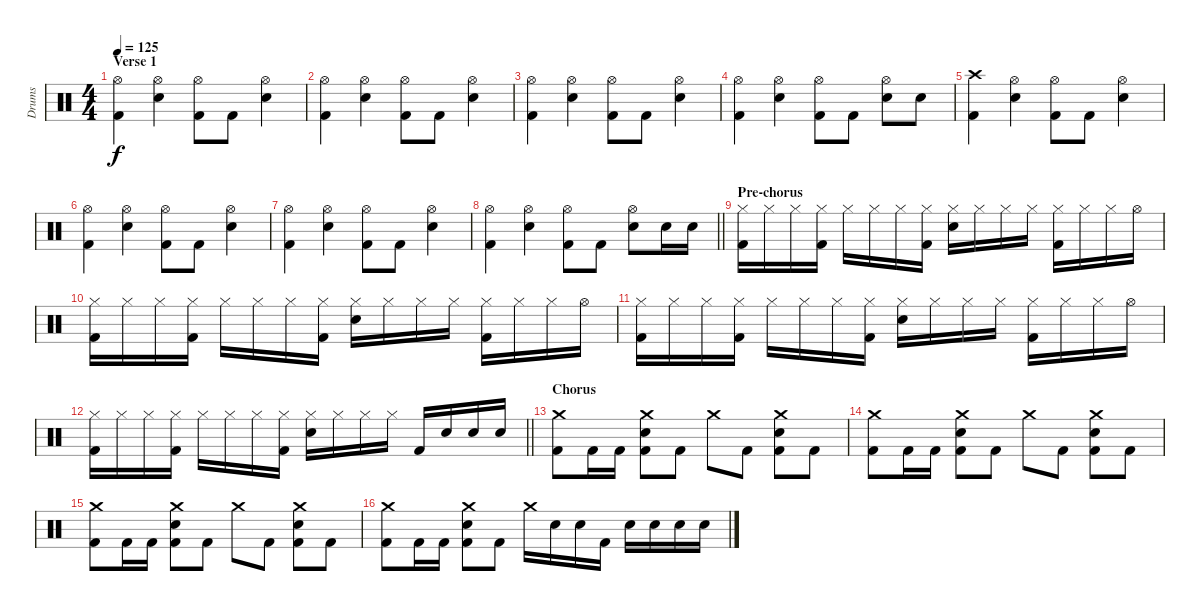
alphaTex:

\track ("Drums" "Drums") {instrument percussion}
\staff {score}
\articulation defaults
\ts (4 4)
\section ("" "Verse 1")
\tempo 125
\clef neutral
\ks c
("Hi-Hat (open)" "Kick (hit) 2").4{dy f} ("Hi-Hat (open)" "Electric Snare (hit)").4 ("Hi-Hat (open)" "Kick (hit) 2").8 "Kick (hit) 2".8 ("Hi-Hat (open)" "Electric Snare (hit)").4 |
("Hi-Hat (open)" "Kick (hit) 2").4 ("Hi-Hat (open)" "Electric Snare (hit)").4 ("Hi-Hat (open)" "Kick (hit) 2").8 "Kick (hit) 2".8 ("Hi-Hat (open)" "Electric Snare (hit)").4 |
("Hi-Hat (open)" "Kick (hit) 2").4 ("Hi-Hat (open)" "Electric Snare (hit)").4 ("Hi-Hat (open)" "Kick (hit) 2").8 "Kick (hit) 2".8 ("Hi-Hat (open)" "Electric Snare (hit)").4 |
("Hi-Hat (open)" "Kick (hit) 2").4 ("Hi-Hat (open)" "Electric Snare (hit)").4 ("Hi-Hat (open)" "Kick (hit) 2").8 "Kick (hit) 2".8 ("Hi-Hat (open)" "Electric Snare (hit)").8 "Electric Snare (hit)".8 |
("Crash high (hit)" "Kick (hit) 2").4 ("Hi-Hat (open)" "Electric Snare (hit)").4 ("Hi-Hat (open)" "Kick (hit) 2").8 "Kick (hit) 2".8 ("Hi-Hat (open)" "Electric Snare (hit)").4 |
("Hi-Hat (open)" "Kick (hit) 2").4 ("Hi-Hat (open)" "Electric Snare (hit)").4 ("Hi-Hat (open)" "Kick (hit) 2").8 "Kick (hit) 2".8 ("Hi-Hat (open)" "Electric Snare (hit)").4 |
("Hi-Hat (open)" "Kick (hit) 2").4 ("Hi-Hat (open)" "Electric Snare (hit)").4 ("Hi-Hat (open)" "Kick (hit) 2").8 "Kick (hit) 2".8 ("Hi-Hat (open)" "Electric Snare (hit)").4 |
\barLineRight lightlight
("Hi-Hat (open)" "Kick (hit) 2").4 ("Hi-Hat (open)" "Electric Snare (hit)").4 ("Hi-Hat (open)" "Kick (hit) 2").8 "Kick (hit) 2".8 ("Hi-Hat (open)" "Electric Snare (hit)").8 "Electric Snare (hit)".16 "Electric Snare (hit)".16 |
\section ("" "Pre-chorus")
("Hi-Hat (closed)" "Kick (hit) 2").16 "Hi-Hat (closed)".16 "Hi-Hat (closed)".16 ("Hi-Hat (closed)" "Kick (hit) 2").16 "Hi-Hat (closed)".16 "Hi-Hat (closed)".16 "Hi-Hat (closed)".16 ("Hi-Hat (closed)" "Kick (hit) 2").16 ("Hi-Hat (closed)" "Electric Snare (hit)").16 "Hi-Hat (closed)".16 "Hi-Hat (closed)".16 "Hi-Hat (closed)".16 ("Hi-Hat (closed)" "Kick (hit) 2").16 "Hi-Hat (closed)".16 "Hi-Hat (closed)".16 "Hi-Hat (open)".16 |
("Hi-Hat (closed)" "Kick (hit) 2").16 "Hi-Hat (closed)".16 "Hi-Hat (closed)".16 ("Hi-Hat (closed)" "Kick (hit) 2").16 "Hi-Hat (closed)".16 "Hi-Hat (closed)".16 "Hi-Hat (closed)".16 ("Hi-Hat (closed)" "Kick (hit) 2").16 ("Hi-Hat (closed)" "Electric Snare (hit)").16 "Hi-Hat (closed)".16 "Hi-Hat (closed)".16 "Hi-Hat (closed)".16 ("Hi-Hat (closed)" "Kick (hit) 2").16 "Hi-Hat (closed)".16 "Hi-Hat (closed)".16 "Hi-Hat (open)".16 |
("Hi-Hat (closed)" "Kick (hit) 2").16 "Hi-Hat (closed)".16 "Hi-Hat (closed)".16 ("Hi-Hat (closed)" "Kick (hit) 2").16 "Hi-Hat (closed)".16 "Hi-Hat (closed)".16 "Hi-Hat (closed)".16 ("Hi-Hat (closed)" "Kick (hit) 2").16 ("Hi-Hat (closed)" "Electric Snare (hit)").16 "Hi-Hat (closed)".16 "Hi-Hat (closed)".16 "Hi-Hat (closed)".16 ("Hi-Hat (closed)" "Kick (hit) 2").16 "Hi-Hat (closed)".16 "Hi-Hat (closed)".16 "Hi-Hat (open)".16 |
\barLineRight lightlight
("Hi-Hat (closed)" "Kick (hit) 2").16 "Hi-Hat (closed)".16 "Hi-Hat (closed)".16 ("Hi-Hat (closed)" "Kick (hit) 2").16 "Hi-Hat (closed)".16 "Hi-Hat (closed)".16 "Hi-Hat (closed)".16 ("Hi-Hat (closed)" "Kick (hit) 2").16 ("Hi-Hat (closed)" "Electric Snare (hit)").16 "Hi-Hat (closed)".16 "Hi-Hat (closed)".16 "Hi-Hat (closed)".16 "Kick (hit) 2".16 "Electric Snare (hit)".16 "Electric Snare (hit)".16 "Electric Snare (hit)".16 |
\section ("" "Chorus")
("Crash medium (hit)" "Kick (hit) 2").8 "Kick (hit) 2".16 "Kick (hit) 2".16 ("Crash medium (hit)" "Electric Snare (hit)" "Kick (hit) 2").8 "Kick (hit) 2".8 "Crash medium (hit)".8 "Kick (hit) 2".8 ("Crash medium (hit)" "Electric Snare (hit)" "Kick (hit) 2").8 "Kick (hit) 2".8 |
("Crash medium (hit)" "Kick (hit) 2").8 "Kick (hit) 2".16 "Kick (hit) 2".16 ("Crash medium (hit)" "Electric Snare (hit)" "Kick (hit) 2").8 "Kick (hit) 2".8 "Crash medium (hit)".8 "Kick (hit) 2".8 ("Crash medium (hit)" "Electric Snare (hit)" "Kick (hit) 2").8 "Kick (hit) 2".8 |
("Crash medium (hit)" "Kick (hit) 2").8 "Kick (hit) 2".16 "Kick (hit) 2".16 ("Crash medium (hit)" "Electric Snare (hit)" "Kick (hit) 2").8 "Kick (hit) 2".8 "Crash medium (hit)".8 "Kick (hit) 2".8 ("Crash medium (hit)" "Electric Snare (hit)" "Kick (hit) 2").8 "Kick (hit) 2".8 |
("Crash medium (hit)" "Kick (hit) 2").8 "Kick (hit) 2".16 "Kick (hit) 2".16 ("Crash medium (hit)" "Electric Snare (hit)" "Kick (hit) 2").8 "Kick (hit) 2".8 "Crash medium (hit)".16 "Electric Snare (hit)".16 "Electric Snare (hit)".16 "Kick (hit) 2".16 "Electric Snare (hit)".16 "Electric Snare (hit)".16 "Electric Snare (hit)".16 "Electric Snare (hit)".16
